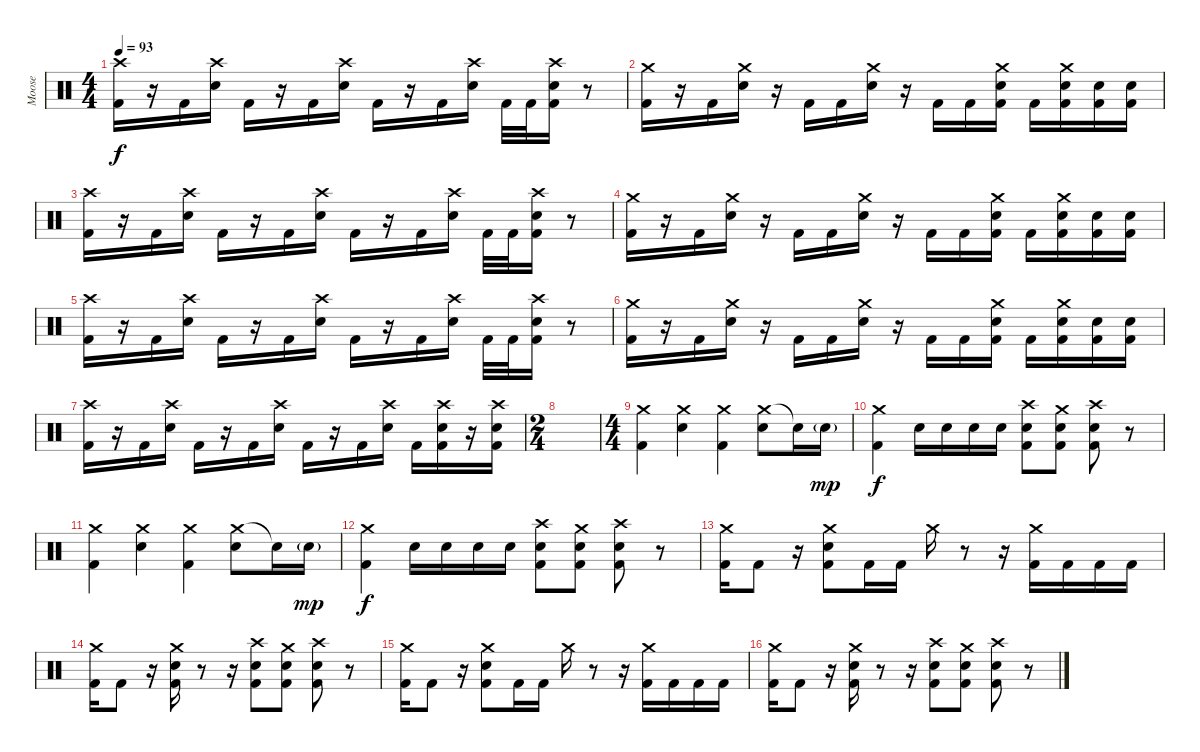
\track ("Moose" "Moose") {instrument percussion}
\staff {score}
\articulation defaults
\ts (4 4)
\tempo 93
\clef neutral
\ks c
("Crash high (hit)" "Kick (hit) 2").16{dy f} r.16 "Kick (hit) 2".16 ("Crash high (hit)" "Electric Snare (hit)").16 "Kick (hit) 2".16 r.16 "Kick (hit) 2".16 ("Crash high (hit)" "Electric Snare (hit)").16 "Kick (hit) 2".16 r.16 "Kick (hit) 2".16 ("Crash high (hit)" "Electric Snare (hit)").16 "Kick (hit) 2".32 "Kick (hit) 2".32 ("Crash high (hit)" "Electric Snare (hit)" "Kick (hit) 2").16 r.8 |
("Crash medium (hit)" "Kick (hit) 2").16 r.16 "Kick (hit) 2".16 ("Crash medium (hit)" "Electric Snare (hit)").16 r.16 "Kick (hit) 2".16 "Kick (hit) 2".16 ("Crash medium (hit)" "Electric Snare (hit)").16 r.16 "Kick (hit) 2".16 "Kick (hit) 2".16 ("Crash medium (hit)" "Electric Snare (hit)" "Kick (hit) 2").16 "Kick (hit) 2".16 ("Crash medium (hit)" "Electric Snare (hit)" "Kick (hit) 2").16 ("Electric Snare (hit)" "Kick (hit) 2").16 ("Electric Snare (hit)" "Kick (hit) 2").16 |
("Crash high (hit)" "Kick (hit) 2").16 r.16 "Kick (hit) 2".16 ("Crash high (hit)" "Electric Snare (hit)").16 "Kick (hit) 2".16 r.16 "Kick (hit) 2".16 ("Crash high (hit)" "Electric Snare (hit)").16 "Kick (hit) 2".16 r.16 "Kick (hit) 2".16 ("Crash high (hit)" "Electric Snare (hit)").16 "Kick (hit) 2".32 "Kick (hit) 2".32 ("Crash high (hit)" "Electric Snare (hit)" "Kick (hit) 2").16 r.8 |
("Crash medium (hit)" "Kick (hit) 2").16 r.16 "Kick (hit) 2".16 ("Crash medium (hit)" "Electric Snare (hit)").16 r.16 "Kick (hit) 2".16 "Kick (hit) 2".16 ("Crash medium (hit)" "Electric Snare (hit)").16 r.16 "Kick (hit) 2".16 "Kick (hit) 2".16 ("Crash medium (hit)" "Electric Snare (hit)" "Kick (hit) 2").16 "Kick (hit) 2".16 ("Crash medium (hit)" "Electric Snare (hit)" "Kick (hit) 2").16 ("Electric Snare (hit)" "Kick (hit) 2").16 ("Electric Snare (hit)" "Kick (hit) 2").16 |
("Crash high (hit)" "Kick (hit) 2").16 r.16 "Kick (hit) 2".16 ("Crash high (hit)" "Electric Snare (hit)").16 "Kick (hit) 2".16 r.16 "Kick (hit) 2".16 ("Crash high (hit)" "Electric Snare (hit)").16 "Kick (hit) 2".16 r.16 "Kick (hit) 2".16 ("Crash high (hit)" "Electric Snare (hit)").16 "Kick (hit) 2".32 "Kick (hit) 2".32 ("Crash high (hit)" "Electric Snare (hit)" "Kick (hit) 2").16 r.8 |
("Crash medium (hit)" "Kick (hit) 2").16 r.16 "Kick (hit) 2".16 ("Crash medium (hit)" "Electric Snare (hit)").16 r.16 "Kick (hit) 2".16 "Kick (hit) 2".16 ("Crash medium (hit)" "Electric Snare (hit)").16 r.16 "Kick (hit) 2".16 "Kick (hit) 2".16 ("Crash medium (hit)" "Electric Snare (hit)" "Kick (hit) 2").16 "Kick (hit) 2".16 ("Crash medium (hit)" "Electric Snare (hit)" "Kick (hit) 2").16 ("Electric Snare (hit)" "Kick (hit) 2").16 ("Electric Snare (hit)" "Kick (hit) 2").16 |
("Crash high (hit)" "Kick (hit) 2").16 r.16 "Kick (hit) 2".16 ("Crash high (hit)" "Electric Snare (hit)").16 "Kick (hit) 2".16 r.16 "Kick (hit) 2".16 ("Crash high (hit)" "Electric Snare (hit)").16 "Kick (hit) 2".16 r.16 "Kick (hit) 2".16 ("Crash high (hit)" "Electric Snare (hit)").16 "Kick (hit) 2".16 ("Crash high (hit)" "Electric Snare (hit)" "Kick (hit) 2").16 r.16 ("Crash high (hit)" "Electric Snare (hit)" "Kick (hit) 2").16 |
\ts (2 4)
|
\ts (4 4)
("Crash medium (hit)" "Kick (hit) 2").4 ("Crash medium (hit)" "Electric Snare (hit)").4 ("Crash medium (hit)" "Kick (hit) 2").4 ("Crash medium (hit)" "Electric Snare (hit)").8 "Snare (hit)"{t}.16 "Electric Snare (hit)"{g}.16{dy mp} |
("Crash medium (hit)" "Kick (hit) 2").4{dy f} "Electric Snare (hit)".16 "Electric Snare (hit)".16 "Electric Snare (hit)".16 "Electric Snare (hit)".16 ("Crash high (hit)" "Electric Snare (hit)" "Kick (hit) 2").8 ("Crash medium (hit)" "Electric Snare (hit)" "Kick (hit) 2").8 ("Crash high (hit)" "Electric Snare (hit)" "Kick (hit) 2").8 r.8 |
("Crash medium (hit)" "Kick (hit) 2").4 ("Crash medium (hit)" "Electric Snare (hit)").4 ("Crash medium (hit)" "Kick (hit) 2").4 ("Crash medium (hit)" "Electric Snare (hit)").8 "Snare (hit)"{t}.16 "Electric Snare (hit)"{g}.16{dy mp} |
("Crash medium (hit)" "Kick (hit) 2").4{dy f} "Electric Snare (hit)".16 "Electric Snare (hit)".16 "Electric Snare (hit)".16 "Electric Snare (hit)".16 ("Crash high (hit)" "Electric Snare (hit)" "Kick (hit) 2").8 ("Crash medium (hit)" "Electric Snare (hit)" "Kick (hit) 2").8 ("Crash high (hit)" "Electric Snare (hit)" "Kick (hit) 2").8 r.8 |
("Crash medium (hit)" "Kick (hit) 2").16 "Kick (hit) 2".8 r.16 ("Crash medium (hit)" "Electric Snare (hit)" "Kick (hit) 2").8 "Kick (hit) 2".16 "Kick (hit) 2".16 "Crash medium (hit)".16 r.8 r.16 ("Crash medium (hit)" "Kick (hit) 2").16 "Kick (hit) 2".16 "Kick (hit) 2".16 "Kick (hit) 2".16 |
("Crash medium (hit)" "Kick (hit) 2").16 "Kick (hit) 2".8 r.16 ("Crash medium (hit)" "Electric Snare (hit)" "Kick (hit) 2").16 r.8 r.16 ("Crash high (hit)" "Electric Snare (hit)" "Kick (hit) 2").8 ("Crash medium (hit)" "Electric Snare (hit)" "Kick (hit) 2").8 ("Crash high (hit)" "Electric Snare (hit)" "Kick (hit) 2").8 r.8 |
("Crash medium (hit)" "Kick (hit) 2").16 "Kick (hit) 2".8 r.16 ("Crash medium (hit)" "Electric Snare (hit)" "Kick (hit) 2").8 "Kick (hit) 2".16 "Kick (hit) 2".16 "Crash medium (hit)".16 r.8 r.16 ("Crash medium (hit)" "Kick (hit) 2").16 "Kick (hit) 2".16 "Kick (hit) 2".16 "Kick (hit) 2".16 |
("Crash medium (hit)" "Kick (hit) 2").16 "Kick (hit) 2".8 r.16 ("Crash medium (hit)" "Electric Snare (hit)" "Kick (hit) 2").16 r.8 r.16 ("Crash high (hit)" "Electric Snare (hit)" "Kick (hit) 2").8 ("Crash medium (hit)" "Electric Snare (hit)" "Kick (hit) 2").8 ("Crash high (hit)" "Electric Snare (hit)" "Kick (hit) 2").8 r.8
